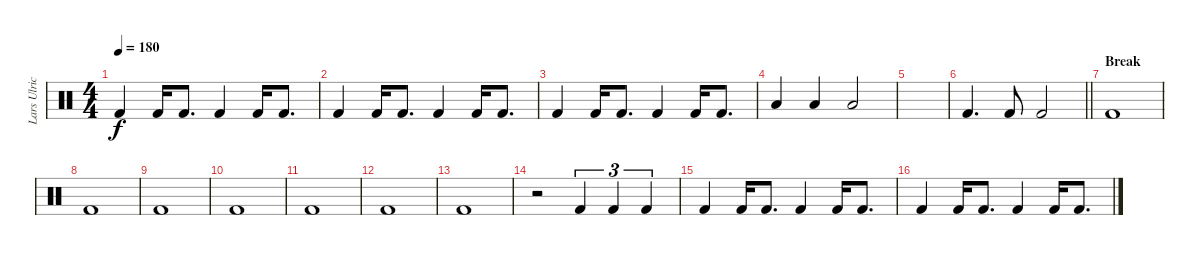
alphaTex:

\track ("Lars Ulrich" "Lars Ulric") {instrument percussion}
\staff {score}
\articulation defaults
\ts (4 4)
\tempo 180
\clef neutral
\ks c "Kick (hit) 2".4{dy f} "Kick (hit) 2".16 "Kick (hit) 2".8{d} "Kick (hit) 2".4 "Kick (hit) 2".16 "Kick (hit) 2".8{d}
|
"Kick (hit) 2".4 "Kick (hit) 2".16 "Kick (hit) 2".8{d} "Kick (hit) 2".4 "Kick (hit) 2".16 "Kick (hit) 2".8{d} |
"Kick (hit) 2".4 "Kick (hit) 2".16 "Kick (hit) 2".8{d} "Kick (hit) 2".4 "Kick (hit) 2".16 "Kick (hit) 2".8{d} |
"Low Floor Tom (hit)".4 "Low Floor Tom (hit)".4 "Low Floor Tom (hit)".2 |
|
\barLineRight lightlight "Kick (hit) 2".4{d} "Kick (hit) 2".8 "Kick (hit) 2".2
|
\section ("" "Break")
"Kick (hit) 2".1 |
"Kick (hit) 2".1 |
"Kick (hit) 2".1 |
"Kick (hit) 2".1 |
"Kick (hit) 2".1 |
"Kick (hit) 2".1 |
"Kick (hit) 2".1 |
r.2 "Kick (hit) 2".4{tu (3 2)} "Kick (hit) 2".4{tu (3 2)} "Kick (hit) 2".4{tu (3 2)} |
"Kick (hit) 2".4 "Kick (hit) 2".16 "Kick (hit) 2".8{d} "Kick (hit) 2".4 "Kick (hit) 2".16 "Kick (hit) 2".8{d} |
"Kick (hit) 2".4 "Kick (hit) 2".16 "Kick (hit) 2".8{d} "Kick (hit) 2".4 "Kick (hit) 2".16 "Kick (hit) 2".8{d}
